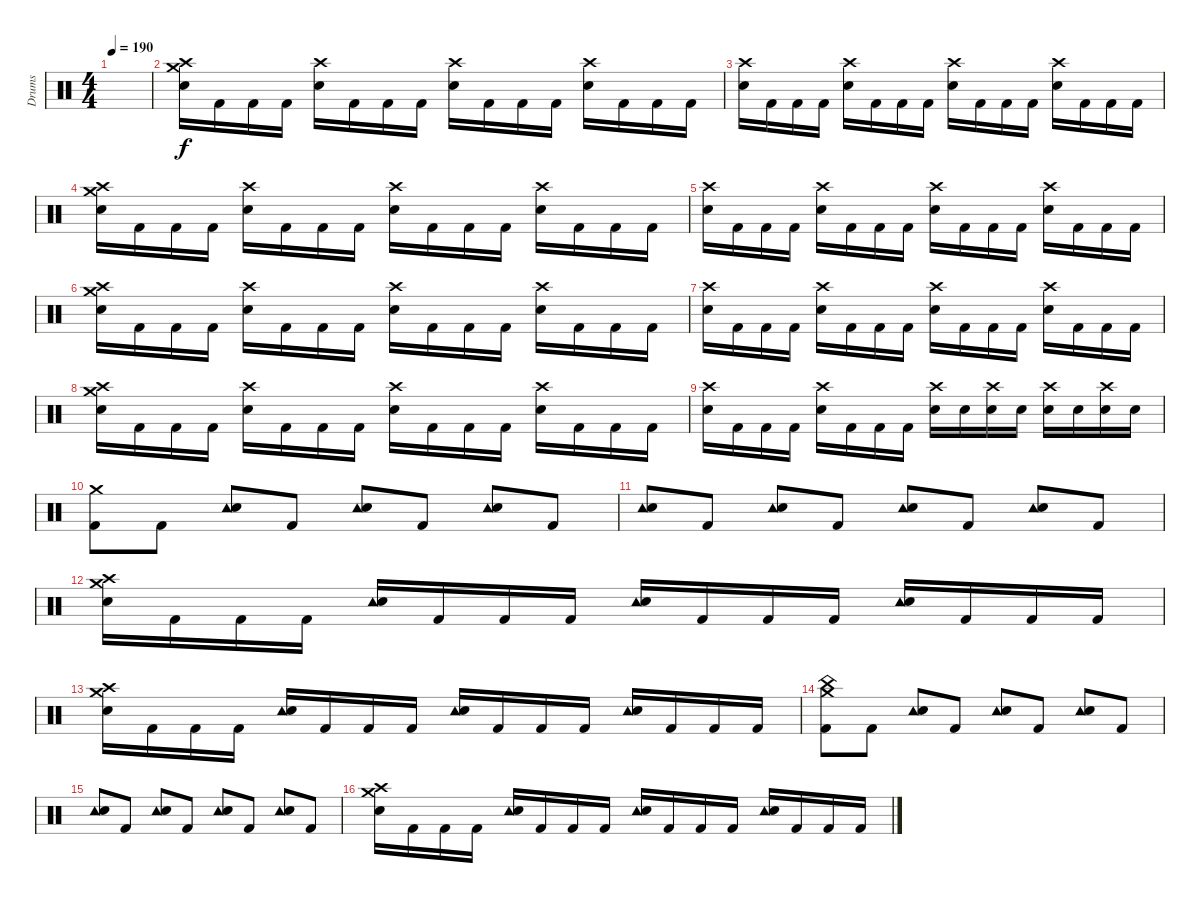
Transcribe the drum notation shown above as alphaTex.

\track ("Drums" "Drums") {instrument percussion}
\staff {score}
\articulation defaults
\ts (4 4)
\tempo 190
\clef neutral
\ks c
|
("Crash medium (hit)" "Crash high (hit)" "Electric Snare (hit)").16 "Kick (hit) 2".16 "Kick (hit) 2".16 "Kick (hit) 2".16 ("Crash high (hit)" "Electric Snare (hit)").16 "Kick (hit) 2".16 "Kick (hit) 2".16 "Kick (hit) 2".16 ("Crash high (hit)" "Electric Snare (hit)").16 "Kick (hit) 2".16 "Kick (hit) 2".16 "Kick (hit) 2".16 ("Crash high (hit)" "Electric Snare (hit)").16 "Kick (hit) 2".16 "Kick (hit) 2".16 "Kick (hit) 2".16 |
("Crash high (hit)" "Electric Snare (hit)").16 "Kick (hit) 2".16 "Kick (hit) 2".16 "Kick (hit) 2".16 ("Crash high (hit)" "Electric Snare (hit)").16 "Kick (hit) 2".16 "Kick (hit) 2".16 "Kick (hit) 2".16 ("Crash high (hit)" "Electric Snare (hit)").16 "Kick (hit) 2".16 "Kick (hit) 2".16 "Kick (hit) 2".16 ("Crash high (hit)" "Electric Snare (hit)").16 "Kick (hit) 2".16 "Kick (hit) 2".16 "Kick (hit) 2".16 |
("Crash medium (hit)" "Crash high (hit)" "Electric Snare (hit)").16 "Kick (hit) 2".16 "Kick (hit) 2".16 "Kick (hit) 2".16 ("Crash high (hit)" "Electric Snare (hit)").16 "Kick (hit) 2".16 "Kick (hit) 2".16 "Kick (hit) 2".16 ("Crash high (hit)" "Electric Snare (hit)").16 "Kick (hit) 2".16 "Kick (hit) 2".16 "Kick (hit) 2".16 ("Crash high (hit)" "Electric Snare (hit)").16 "Kick (hit) 2".16 "Kick (hit) 2".16 "Kick (hit) 2".16 |
("Crash high (hit)" "Electric Snare (hit)").16 "Kick (hit) 2".16 "Kick (hit) 2".16 "Kick (hit) 2".16 ("Crash high (hit)" "Electric Snare (hit)").16 "Kick (hit) 2".16 "Kick (hit) 2".16 "Kick (hit) 2".16 ("Crash high (hit)" "Electric Snare (hit)").16 "Kick (hit) 2".16 "Kick (hit) 2".16 "Kick (hit) 2".16 ("Crash high (hit)" "Electric Snare (hit)").16 "Kick (hit) 2".16 "Kick (hit) 2".16 "Kick (hit) 2".16 |
("Crash medium (hit)" "Crash high (hit)" "Electric Snare (hit)").16 "Kick (hit) 2".16 "Kick (hit) 2".16 "Kick (hit) 2".16 ("Crash high (hit)" "Electric Snare (hit)").16 "Kick (hit) 2".16 "Kick (hit) 2".16 "Kick (hit) 2".16 ("Crash high (hit)" "Electric Snare (hit)").16 "Kick (hit) 2".16 "Kick (hit) 2".16 "Kick (hit) 2".16 ("Crash high (hit)" "Electric Snare (hit)").16 "Kick (hit) 2".16 "Kick (hit) 2".16 "Kick (hit) 2".16 |
("Crash high (hit)" "Electric Snare (hit)").16 "Kick (hit) 2".16 "Kick (hit) 2".16 "Kick (hit) 2".16 ("Crash high (hit)" "Electric Snare (hit)").16 "Kick (hit) 2".16 "Kick (hit) 2".16 "Kick (hit) 2".16 ("Crash high (hit)" "Electric Snare (hit)").16 "Kick (hit) 2".16 "Kick (hit) 2".16 "Kick (hit) 2".16 ("Crash high (hit)" "Electric Snare (hit)").16 "Kick (hit) 2".16 "Kick (hit) 2".16 "Kick (hit) 2".16 |
("Crash medium (hit)" "Crash high (hit)" "Electric Snare (hit)").16 "Kick (hit) 2".16 "Kick (hit) 2".16 "Kick (hit) 2".16 ("Crash high (hit)" "Electric Snare (hit)").16 "Kick (hit) 2".16 "Kick (hit) 2".16 "Kick (hit) 2".16 ("Crash high (hit)" "Electric Snare (hit)").16 "Kick (hit) 2".16 "Kick (hit) 2".16 "Kick (hit) 2".16 ("Crash high (hit)" "Electric Snare (hit)").16 "Kick (hit) 2".16 "Kick (hit) 2".16 "Kick (hit) 2".16 |
("Crash high (hit)" "Electric Snare (hit)").16 "Kick (hit) 2".16 "Kick (hit) 2".16 "Kick (hit) 2".16 ("Crash high (hit)" "Electric Snare (hit)").16 "Kick (hit) 2".16 "Kick (hit) 2".16 "Kick (hit) 2".16 ("Crash high (hit)" "Electric Snare (hit)").16 "Electric Snare (hit)".16 ("Crash high (hit)" "Electric Snare (hit)").16 "Electric Snare (hit)".16 ("Crash high (hit)" "Electric Snare (hit)").16 "Electric Snare (hit)".16 ("Crash high (hit)" "Electric Snare (hit)").16 "Electric Snare (hit)".16 |
("Crash medium (hit)" "Kick (hit) 2").8 "Kick (hit) 2".8 ("Tambourine (hit)" "Electric Snare (hit)").8 "Kick (hit) 2".8 ("Tambourine (hit)" "Electric Snare (hit)").8 "Kick (hit) 2".8 ("Tambourine (hit)" "Electric Snare (hit)").8 "Kick (hit) 2".8 |
("Tambourine (hit)" "Electric Snare (hit)").8 "Kick (hit) 2".8 ("Tambourine (hit)" "Electric Snare (hit)").8 "Kick (hit) 2".8 ("Tambourine (hit)" "Electric Snare (hit)").8 "Kick (hit) 2".8 ("Tambourine (hit)" "Electric Snare (hit)").8 "Kick (hit) 2".8 |
("Crash medium (hit)" "Crash high (hit)" "Electric Snare (hit)").16 "Kick (hit) 2".16 "Kick (hit) 2".16 "Kick (hit) 2".16 ("Tambourine (hit)" "Electric Snare (hit)").16 "Kick (hit) 2".16 "Kick (hit) 2".16 "Kick (hit) 2".16 ("Tambourine (hit)" "Electric Snare (hit)").16 "Kick (hit) 2".16 "Kick (hit) 2".16 "Kick (hit) 2".16 ("Tambourine (hit)" "Electric Snare (hit)").16 "Kick (hit) 2".16 "Kick (hit) 2".16 "Kick (hit) 2".16 |
("Crash medium (hit)" "Crash high (hit)" "Electric Snare (hit)").16 "Kick (hit) 2".16 "Kick (hit) 2".16 "Kick (hit) 2".16 ("Tambourine (hit)" "Electric Snare (hit)").16 "Kick (hit) 2".16 "Kick (hit) 2".16 "Kick (hit) 2".16 ("Tambourine (hit)" "Electric Snare (hit)").16 "Kick (hit) 2".16 "Kick (hit) 2".16 "Kick (hit) 2".16 ("Tambourine (hit)" "Electric Snare (hit)").16 "Kick (hit) 2".16 "Kick (hit) 2".16 "Kick (hit) 2".16 |
("China (hit)" "Crash medium (hit)" "Kick (hit) 2").8 "Kick (hit) 2".8 ("Tambourine (hit)" "Electric Snare (hit)").8 "Kick (hit) 2".8 ("Tambourine (hit)" "Electric Snare (hit)").8 "Kick (hit) 2".8 ("Tambourine (hit)" "Electric Snare (hit)").8 "Kick (hit) 2".8 |
("Tambourine (hit)" "Electric Snare (hit)").8 "Kick (hit) 2".8 ("Tambourine (hit)" "Electric Snare (hit)").8 "Kick (hit) 2".8 ("Tambourine (hit)" "Electric Snare (hit)").8 "Kick (hit) 2".8 ("Tambourine (hit)" "Electric Snare (hit)").8 "Kick (hit) 2".8 |
("Crash medium (hit)" "Crash high (hit)" "Electric Snare (hit)").16 "Kick (hit) 2".16 "Kick (hit) 2".16 "Kick (hit) 2".16 ("Tambourine (hit)" "Electric Snare (hit)").16 "Kick (hit) 2".16 "Kick (hit) 2".16 "Kick (hit) 2".16 ("Tambourine (hit)" "Electric Snare (hit)").16 "Kick (hit) 2".16 "Kick (hit) 2".16 "Kick (hit) 2".16 ("Tambourine (hit)" "Electric Snare (hit)").16 "Kick (hit) 2".16 "Kick (hit) 2".16 "Kick (hit) 2".16
